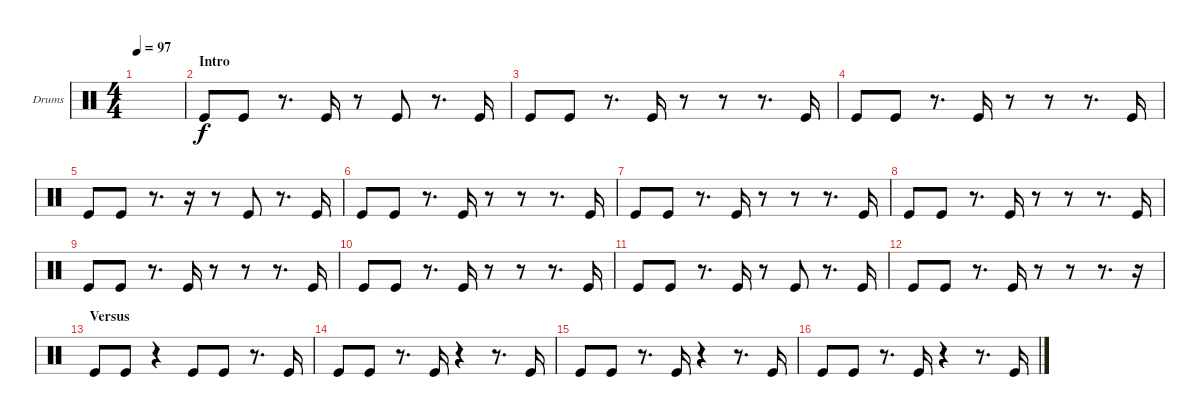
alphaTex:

\bracketExtendMode groupsimilarinstruments
\firstSystemTrackNameOrientation horizontal
\otherSystemsTrackNameOrientation horizontal
\track ("Kick" "Drums") {instrument percussion}
\staff {score}
\articulation defaults
\ts (4 4)
\tempo 97
\clef neutral
\ks c
|
\section ("" "Intro")
"Kick (hit)".8 "Kick (hit)".8 r.8{d} "Kick (hit)".16 r.8 "Kick (hit)".8 r.8{d} "Kick (hit)".16 |
"Kick (hit)".8 "Kick (hit)".8 r.8{d} "Kick (hit)".16 r.8 r.8 r.8{d} "Kick (hit)".16 |
"Kick (hit)".8 "Kick (hit)".8 r.8{d} "Kick (hit)".16 r.8 r.8 r.8{d} "Kick (hit)".16 |
"Kick (hit)".8 "Kick (hit)".8 r.8{d} r.16 r.8 "Kick (hit)".8 r.8{d} "Kick (hit)".16 |
"Kick (hit)".8 "Kick (hit)".8 r.8{d} "Kick (hit)".16 r.8 r.8 r.8{d} "Kick (hit)".16 |
"Kick (hit)".8 "Kick (hit)".8 r.8{d} "Kick (hit)".16 r.8 r.8 r.8{d} "Kick (hit)".16 |
"Kick (hit)".8 "Kick (hit)".8 r.8{d} "Kick (hit)".16 r.8 r.8 r.8{d} "Kick (hit)".16 |
"Kick (hit)".8 "Kick (hit)".8 r.8{d} "Kick (hit)".16 r.8 r.8 r.8{d} "Kick (hit)".16 |
"Kick (hit)".8 "Kick (hit)".8 r.8{d} "Kick (hit)".16 r.8 r.8 r.8{d} "Kick (hit)".16 |
"Kick (hit)".8 "Kick (hit)".8 r.8{d} "Kick (hit)".16 r.8 "Kick (hit)".8 r.8{d} "Kick (hit)".16 |
"Kick (hit)".8 "Kick (hit)".8 r.8{d} "Kick (hit)".16 r.8 r.8 r.8{d} r.16 |
\section ("" "Versus")
"Kick (hit)".8 "Kick (hit)".8 r.4 "Kick (hit)".8 "Kick (hit)".8 r.8{d} "Kick (hit)".16 |
"Kick (hit)".8 "Kick (hit)".8 r.8{d} "Kick (hit)".16 r.4 r.8{d} "Kick (hit)".16 |
"Kick (hit)".8 "Kick (hit)".8 r.8{d} "Kick (hit)".16 r.4 r.8{d} "Kick (hit)".16 |
"Kick (hit)".8 "Kick (hit)".8 r.8{d} "Kick (hit)".16 r.4 r.8{d} "Kick (hit)".16
